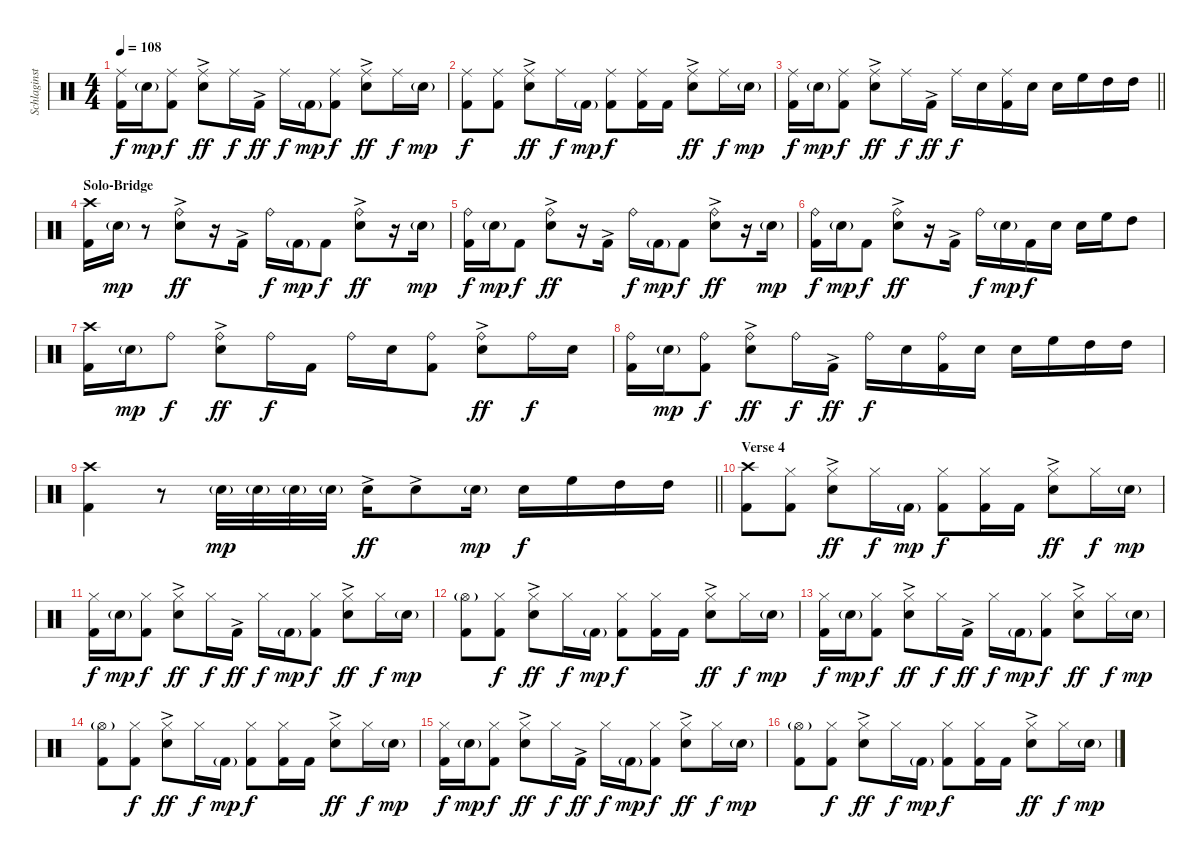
\track ("Schlaginstrumente - Auswahl" "Schlaginst") {instrument percussion}
\staff {score}
\articulation defaults
\ts (4 4)
\tempo 108
\clef neutral
\ks c
("Ride (middle)" "Kick (hit) 2").16{dy f} "Snare (hit) 2"{g}.16{dy mp} ("Ride (middle)" "Kick (hit) 2").8{dy f} ("Ride (middle)" "Snare (hit) 2"{ac}).8{dy ff} "Ride (middle)".16{dy f} "Kick (hit) 2"{ac}.16{dy ff} "Ride (middle)".16{dy f} "Kick (hit) 2"{g}.16{dy mp} ("Ride (middle)" "Kick (hit) 2").8{dy f} ("Ride (middle)" "Snare (hit) 2"{ac}).8{dy ff} "Ride (middle)".16{dy f} "Snare (hit) 2"{g}.16{dy mp} |
("Ride (middle)" "Kick (hit) 2").8{dy f} ("Ride (middle)" "Kick (hit) 2").8 ("Ride (middle)" "Snare (hit) 2"{ac}).8{dy ff} "Ride (middle)".16{dy f} "Kick (hit) 2"{g}.16{dy mp} ("Ride (middle)" "Kick (hit) 2").8{dy f} ("Ride (middle)" "Kick (hit) 2").16 "Kick (hit) 2".16 ("Ride (middle)" "Snare (hit) 2"{ac}).8{dy ff} "Ride (middle)".16{dy f} "Snare (hit) 2"{g}.16{dy mp} |
\barLineRight lightlight
("Ride (middle)" "Kick (hit) 2").16{dy f} "Snare (hit) 2"{g}.16{dy mp} ("Ride (middle)" "Kick (hit) 2").8{dy f} ("Ride (middle)" "Snare (hit) 2"{ac}).8{dy ff} "Ride (middle)".16{dy f} "Kick (hit) 2"{ac}.16{dy ff} "Ride (middle)".16{dy f} "Snare (hit) 2".16 ("Ride (middle)" "Kick (hit) 2").16 "Snare (hit) 2".16 "Snare (hit) 2".16 "High Floor Tom (hit)".16 "High Tom (hit)".16 "High Tom (hit)".16 |
\section ("" "Solo-Bridge")
("Crash high (hit)" "Kick (hit) 2").16 "Snare (hit) 2"{g}.16{dy mp} r.8 ("Ride (bell)" "Snare (hit) 2"{ac}).8{dy ff} r.16 "Kick (hit) 2"{ac}.16 "Ride (bell)".16{dy f} "Kick (hit) 2"{g}.16{dy mp} "Kick (hit) 2".8{dy f} ("Ride (bell)" "Snare (hit) 2"{ac}).8{dy ff} r.16 "Snare (hit) 2"{g}.16{dy mp} |
("Ride (bell)" "Kick (hit) 2").16{dy f} "Snare (hit) 2"{g}.16{dy mp} "Kick (hit) 2".8{dy f} ("Ride (bell)" "Snare (hit) 2"{ac}).8{dy ff} r.16 "Kick (hit) 2"{ac}.16 "Ride (bell)".16{dy f} "Kick (hit) 2"{g}.16{dy mp} "Kick (hit) 2".8{dy f} ("Ride (bell)" "Snare (hit) 2"{ac}).8{dy ff} r.16 "Snare (hit) 2"{g}.16{dy mp} |
("Ride (bell)" "Kick (hit) 2").16{dy f} "Snare (hit) 2"{g}.16{dy mp} "Kick (hit) 2".8{dy f} ("Ride (bell)" "Snare (hit) 2"{ac}).8{dy ff} r.16 "Kick (hit) 2"{ac}.16 "Ride (bell)".16{dy f} "Snare (hit) 2"{g}.16{dy mp} "Kick (hit) 2".16{dy f} "Snare (hit) 2".16 "Snare (hit) 2".16 "High Floor Tom (hit)".16 "High Tom (hit)".8 |
("Crash high (hit)" "Kick (hit) 2").16 "Snare (hit) 2"{g}.16{dy mp} "Ride (bell)".8{dy f} ("Ride (bell)" "Snare (hit) 2"{ac}).8{dy ff} "Ride (bell)".16{dy f} "Kick (hit) 2".16 "Ride (bell)".16 "Snare (hit) 2".16 ("Ride (bell)" "Kick (hit) 2").8 ("Ride (bell)" "Snare (hit) 2"{ac}).8{dy ff} "Ride (bell)".16{dy f} "Snare (hit) 2".16 |
("Ride (bell)" "Kick (hit) 2").16 "Snare (hit) 2"{g}.16{dy mp} ("Ride (bell)" "Kick (hit) 2").8{dy f} ("Ride (bell)" "Snare (hit) 2"{ac}).8{dy ff} "Ride (bell)".16{dy f} "Kick (hit) 2"{ac}.16{dy ff} "Ride (bell)".16{dy f} "Snare (hit) 2".16 ("Ride (bell)" "Kick (hit) 2").16 "Snare (hit) 2".16 "Snare (hit) 2".16 "High Floor Tom (hit)".16 "High Tom (hit)".16 "High Tom (hit)".16 |
\barLineRight lightlight
("Crash high (hit)" "Kick (hit) 2").4 r.8 "Snare (hit) 2"{g}.32{dy mp} "Snare (hit) 2"{g}.32 "Snare (hit) 2"{g}.32 "Snare (hit) 2"{g}.32 "Snare (hit) 2"{ac}.16{dy ff} "Snare (hit) 2"{ac}.8 "Snare (hit) 2"{g}.16{dy mp} "Snare (hit) 2".16{dy f} "High Floor Tom (hit)".16 "High Tom (hit)".16 "High Tom (hit)".16 |
\section ("" "Verse 4")
("Crash high (hit)" "Kick (hit) 2").8 ("Hi-Hat (closed)" "Kick (hit) 2").8 ("Hi-Hat (closed)" "Snare (hit) 2"{ac}).8{dy ff} "Hi-Hat (closed)".16{dy f} "Kick (hit) 2"{g}.16{dy mp} ("Hi-Hat (closed)" "Kick (hit) 2").8{dy f} ("Hi-Hat (closed)" "Kick (hit) 2").16 "Kick (hit) 2".16 ("Hi-Hat (closed)" "Snare (hit) 2"{ac}).8{dy ff} "Hi-Hat (closed)".16{dy f} "Snare (hit) 2"{g}.16{dy mp} |
("Hi-Hat (closed)" "Kick (hit) 2").16{dy f} "Snare (hit) 2"{g}.16{dy mp} ("Hi-Hat (closed)" "Kick (hit) 2").8{dy f} ("Hi-Hat (closed)" "Snare (hit) 2"{ac}).8{dy ff} "Hi-Hat (closed)".16{dy f} "Kick (hit) 2"{ac}.16{dy ff} "Hi-Hat (closed)".16{dy f} "Kick (hit) 2"{g}.16{dy mp} ("Hi-Hat (closed)" "Kick (hit) 2").8{dy f} ("Hi-Hat (closed)" "Snare (hit) 2"{ac}).8{dy ff} "Hi-Hat (closed)".16{dy f} "Snare (hit) 2"{g}.16{dy mp} |
("Hi-Hat (open)"{g} "Kick (hit) 2").8 ("Hi-Hat (closed)" "Kick (hit) 2").8{dy f} ("Hi-Hat (closed)" "Snare (hit) 2"{ac}).8{dy ff} "Hi-Hat (closed)".16{dy f} "Kick (hit) 2"{g}.16{dy mp} ("Hi-Hat (closed)" "Kick (hit) 2").8{dy f} ("Hi-Hat (closed)" "Kick (hit) 2").16 "Kick (hit) 2".16 ("Hi-Hat (closed)" "Snare (hit) 2"{ac}).8{dy ff} "Hi-Hat (closed)".16{dy f} "Snare (hit) 2"{g}.16{dy mp} |
("Hi-Hat (closed)" "Kick (hit) 2").16{dy f} "Snare (hit) 2"{g}.16{dy mp} ("Hi-Hat (closed)" "Kick (hit) 2").8{dy f} ("Hi-Hat (closed)" "Snare (hit) 2"{ac}).8{dy ff} "Hi-Hat (closed)".16{dy f} "Kick (hit) 2"{ac}.16{dy ff} "Hi-Hat (closed)".16{dy f} "Kick (hit) 2"{g}.16{dy mp} ("Hi-Hat (closed)" "Kick (hit) 2").8{dy f} ("Hi-Hat (closed)" "Snare (hit) 2"{ac}).8{dy ff} "Hi-Hat (closed)".16{dy f} "Snare (hit) 2"{g}.16{dy mp} |
("Hi-Hat (open)"{g} "Kick (hit) 2").8 ("Hi-Hat (closed)" "Kick (hit) 2").8{dy f} ("Hi-Hat (closed)" "Snare (hit) 2"{ac}).8{dy ff} "Hi-Hat (closed)".16{dy f} "Kick (hit) 2"{g}.16{dy mp} ("Hi-Hat (closed)" "Kick (hit) 2").8{dy f} ("Hi-Hat (closed)" "Kick (hit) 2").16 "Kick (hit) 2".16 ("Hi-Hat (closed)" "Snare (hit) 2"{ac}).8{dy ff} "Hi-Hat (closed)".16{dy f} "Snare (hit) 2"{g}.16{dy mp} |
("Hi-Hat (closed)" "Kick (hit) 2").16{dy f} "Snare (hit) 2"{g}.16{dy mp} ("Hi-Hat (closed)" "Kick (hit) 2").8{dy f} ("Hi-Hat (closed)" "Snare (hit) 2"{ac}).8{dy ff} "Hi-Hat (closed)".16{dy f} "Kick (hit) 2"{ac}.16{dy ff} "Hi-Hat (closed)".16{dy f} "Kick (hit) 2"{g}.16{dy mp} ("Hi-Hat (closed)" "Kick (hit) 2").8{dy f} ("Hi-Hat (closed)" "Snare (hit) 2"{ac}).8{dy ff} "Hi-Hat (closed)".16{dy f} "Snare (hit) 2"{g}.16{dy mp} |
("Hi-Hat (open)"{g} "Kick (hit) 2").8 ("Hi-Hat (closed)" "Kick (hit) 2").8{dy f} ("Hi-Hat (closed)" "Snare (hit) 2"{ac}).8{dy ff} "Hi-Hat (closed)".16{dy f} "Kick (hit) 2"{g}.16{dy mp} ("Hi-Hat (closed)" "Kick (hit) 2").8{dy f} ("Hi-Hat (closed)" "Kick (hit) 2").16 "Kick (hit) 2".16 ("Hi-Hat (closed)" "Snare (hit) 2"{ac}).8{dy ff} "Hi-Hat (closed)".16{dy f} "Snare (hit) 2"{g}.16{dy mp}
